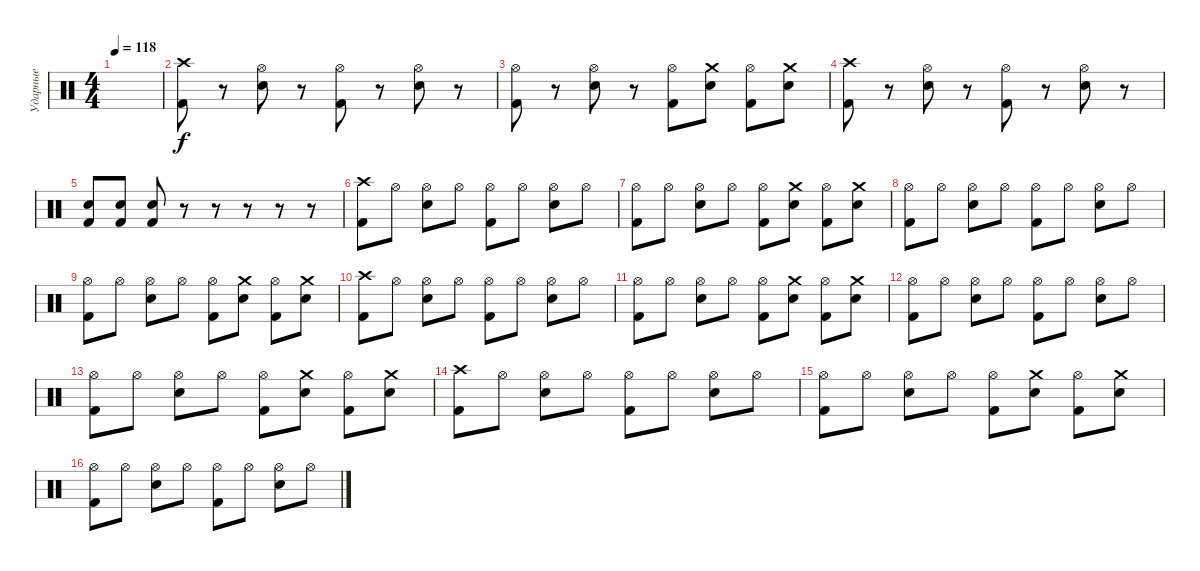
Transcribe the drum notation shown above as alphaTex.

\track ("Ударные" "Ударные") {instrument percussion}
\staff {score}
\articulation defaults
\ts (4 4)
\tempo 118
\clef neutral
\ks c
|
("Crash high (hit)" "Kick (hit) 2").8 r.8 ("Hi-Hat (open)" "Snare (hit) 2").8 r.8 ("Hi-Hat (open)" "Kick (hit) 2").8 r.8 ("Hi-Hat (open)" "Snare (hit) 2").8 r.8 |
("Hi-Hat (open)" "Kick (hit) 2").8 r.8 ("Hi-Hat (open)" "Snare (hit) 2").8 r.8 ("Hi-Hat (open)" "Kick (hit) 2").8 ("Crash medium (hit)" "Snare (hit) 2").8 ("Hi-Hat (open)" "Kick (hit) 2").8 ("Crash medium (hit)" "Snare (hit) 2").8 |
("Crash high (hit)" "Kick (hit) 2").8 r.8 ("Hi-Hat (open)" "Snare (hit) 2").8 r.8 ("Hi-Hat (open)" "Kick (hit) 2").8 r.8 ("Hi-Hat (open)" "Snare (hit) 2").8 r.8 |
("Snare (hit) 2" "Kick (hit) 2").8 ("Snare (hit) 2" "Kick (hit) 2").8 ("Snare (hit) 2" "Kick (hit) 2").8 r.8 r.8 r.8 r.8 r.8 |
("Crash high (hit)" "Kick (hit) 2").8 "Hi-Hat (open)".8 ("Hi-Hat (open)" "Snare (hit) 2").8 "Hi-Hat (open)".8 ("Hi-Hat (open)" "Kick (hit) 2").8 "Hi-Hat (open)".8 ("Hi-Hat (open)" "Snare (hit) 2").8 "Hi-Hat (open)".8 |
("Hi-Hat (open)" "Kick (hit) 2").8 "Hi-Hat (open)".8 ("Hi-Hat (open)" "Snare (hit) 2").8 "Hi-Hat (open)".8 ("Hi-Hat (open)" "Kick (hit) 2").8 ("Crash medium (hit)" "Snare (hit) 2").8 ("Hi-Hat (open)" "Kick (hit) 2").8 ("Crash medium (hit)" "Snare (hit) 2").8 |
("Hi-Hat (open)" "Kick (hit) 2").8 "Hi-Hat (open)".8 ("Hi-Hat (open)" "Snare (hit) 2").8 "Hi-Hat (open)".8 ("Hi-Hat (open)" "Kick (hit) 2").8 "Hi-Hat (open)".8 ("Hi-Hat (open)" "Snare (hit) 2").8 "Hi-Hat (open)".8 |
("Hi-Hat (open)" "Kick (hit) 2").8 "Hi-Hat (open)".8 ("Hi-Hat (open)" "Snare (hit) 2").8 "Hi-Hat (open)".8 ("Hi-Hat (open)" "Kick (hit) 2").8 ("Crash medium (hit)" "Snare (hit) 2").8 ("Hi-Hat (open)" "Kick (hit) 2").8 ("Crash medium (hit)" "Snare (hit) 2").8 |
("Crash high (hit)" "Kick (hit) 2").8 "Hi-Hat (open)".8 ("Hi-Hat (open)" "Snare (hit) 2").8 "Hi-Hat (open)".8 ("Hi-Hat (open)" "Kick (hit) 2").8 "Hi-Hat (open)".8 ("Hi-Hat (open)" "Snare (hit) 2").8 "Hi-Hat (open)".8 |
("Hi-Hat (open)" "Kick (hit) 2").8 "Hi-Hat (open)".8 ("Hi-Hat (open)" "Snare (hit) 2").8 "Hi-Hat (open)".8 ("Hi-Hat (open)" "Kick (hit) 2").8 ("Crash medium (hit)" "Snare (hit) 2").8 ("Hi-Hat (open)" "Kick (hit) 2").8 ("Crash medium (hit)" "Snare (hit) 2").8 |
("Hi-Hat (open)" "Kick (hit) 2").8 "Hi-Hat (open)".8 ("Hi-Hat (open)" "Snare (hit) 2").8 "Hi-Hat (open)".8 ("Hi-Hat (open)" "Kick (hit) 2").8 "Hi-Hat (open)".8 ("Hi-Hat (open)" "Snare (hit) 2").8 "Hi-Hat (open)".8 |
("Hi-Hat (open)" "Kick (hit) 2").8 "Hi-Hat (open)".8 ("Hi-Hat (open)" "Snare (hit) 2").8 "Hi-Hat (open)".8 ("Hi-Hat (open)" "Kick (hit) 2").8 ("Crash medium (hit)" "Snare (hit) 2").8 ("Hi-Hat (open)" "Kick (hit) 2").8 ("Crash medium (hit)" "Snare (hit) 2").8 |
("Crash high (hit)" "Kick (hit) 2").8 "Hi-Hat (open)".8 ("Hi-Hat (open)" "Snare (hit) 2").8 "Hi-Hat (open)".8 ("Hi-Hat (open)" "Kick (hit) 2").8 "Hi-Hat (open)".8 ("Hi-Hat (open)" "Snare (hit) 2").8 "Hi-Hat (open)".8 |
("Hi-Hat (open)" "Kick (hit) 2").8 "Hi-Hat (open)".8 ("Hi-Hat (open)" "Snare (hit) 2").8 "Hi-Hat (open)".8 ("Hi-Hat (open)" "Kick (hit) 2").8 ("Crash medium (hit)" "Snare (hit) 2").8 ("Hi-Hat (open)" "Kick (hit) 2").8 ("Crash medium (hit)" "Snare (hit) 2").8 |
("Hi-Hat (open)" "Kick (hit) 2").8 "Hi-Hat (open)".8 ("Hi-Hat (open)" "Snare (hit) 2").8 "Hi-Hat (open)".8 ("Hi-Hat (open)" "Kick (hit) 2").8 "Hi-Hat (open)".8 ("Hi-Hat (open)" "Snare (hit) 2").8 "Hi-Hat (open)".8
